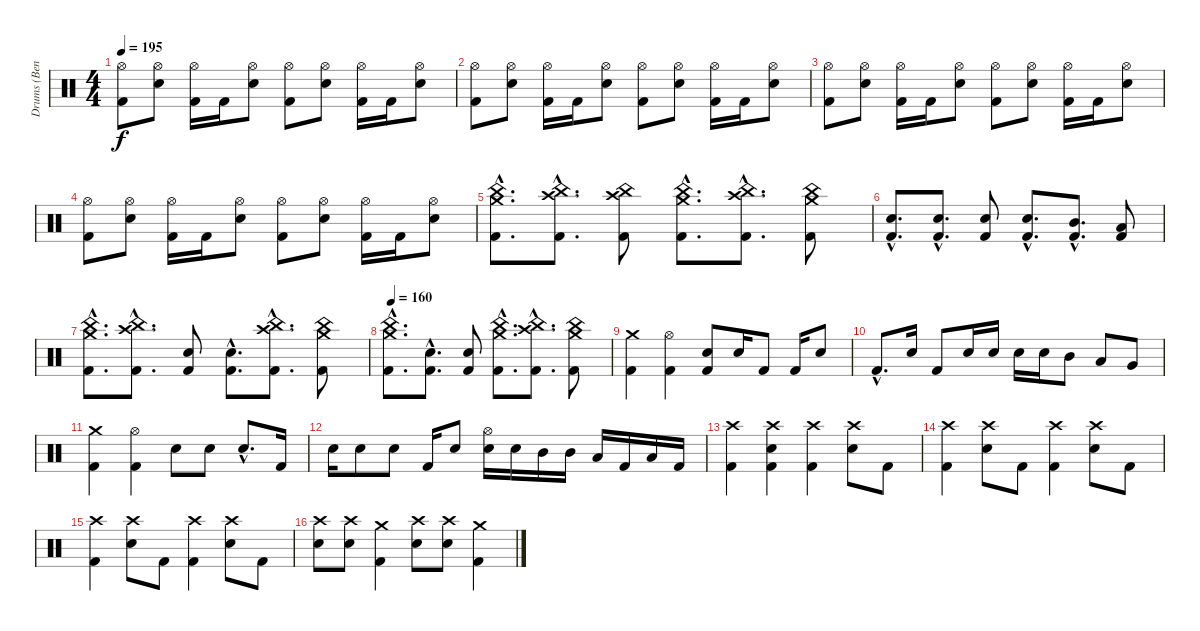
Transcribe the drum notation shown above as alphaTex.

\track ("Drums (Ben)" "Drums (Ben") {instrument percussion}
\staff {score}
\articulation defaults
\ts (4 4)
\tempo 195
\clef neutral
\ks c
("Hi-Hat (open)" "Kick (hit) 2").8{dy f} ("Hi-Hat (open)" "Snare (hit) 2").8 ("Hi-Hat (open)" "Kick (hit) 2").16 "Kick (hit) 2".16 ("Hi-Hat (open)" "Snare (hit) 2").8 ("Hi-Hat (open)" "Kick (hit) 2").8 ("Hi-Hat (open)" "Snare (hit) 2").8 ("Hi-Hat (open)" "Kick (hit) 2").16 "Kick (hit) 2".16 ("Hi-Hat (open)" "Snare (hit) 2").8 |
("Hi-Hat (open)" "Kick (hit) 2").8 ("Hi-Hat (open)" "Snare (hit) 2").8 ("Hi-Hat (open)" "Kick (hit) 2").16 "Kick (hit) 2".16 ("Hi-Hat (open)" "Snare (hit) 2").8 ("Hi-Hat (open)" "Kick (hit) 2").8 ("Hi-Hat (open)" "Snare (hit) 2").8 ("Hi-Hat (open)" "Kick (hit) 2").16 "Kick (hit) 2".16 ("Hi-Hat (open)" "Snare (hit) 2").8 |
("Hi-Hat (open)" "Kick (hit) 2").8 ("Hi-Hat (open)" "Snare (hit) 2").8 ("Hi-Hat (open)" "Kick (hit) 2").16 "Kick (hit) 2".16 ("Hi-Hat (open)" "Snare (hit) 2").8 ("Hi-Hat (open)" "Kick (hit) 2").8 ("Hi-Hat (open)" "Snare (hit) 2").8 ("Hi-Hat (open)" "Kick (hit) 2").16 "Kick (hit) 2".16 ("Hi-Hat (open)" "Snare (hit) 2").8 |
("Hi-Hat (open)" "Kick (hit) 2").8 ("Hi-Hat (open)" "Snare (hit) 2").8 ("Hi-Hat (open)" "Kick (hit) 2").16 "Kick (hit) 2".16 ("Hi-Hat (open)" "Snare (hit) 2").8 ("Hi-Hat (open)" "Kick (hit) 2").8 ("Hi-Hat (open)" "Snare (hit) 2").8 ("Hi-Hat (open)" "Kick (hit) 2").16 "Kick (hit) 2".16 ("Hi-Hat (open)" "Snare (hit) 2").8 |
("Crash medium (hit)"{hac} "China (hit)"{hac} "Kick (hit) 2"{hac}).8{d} ("Crash high (hit)"{hac} "China (hit)"{hac} "Kick (hit) 2"{hac}).8{d} ("Crash high (hit)" "China (hit)" "Kick (hit) 2").8 ("Crash medium (hit)"{hac} "China (hit)"{hac} "Kick (hit) 2"{hac}).8{d} ("Crash high (hit)"{hac} "China (hit)"{hac} "Kick (hit) 2"{hac}).8{d} ("Crash medium (hit)" "China (hit)" "Kick (hit) 2").8 |
("Snare (hit) 2"{hac} "Kick (hit) 2"{hac}).8{d} ("Snare (hit) 2"{hac} "Kick (hit) 2"{hac}).8{d} ("Snare (hit) 2" "Kick (hit) 2").8 ("Snare (hit) 2"{hac} "Kick (hit) 2"{hac}).8{d} ("Mid Tom (hit)"{hac} "Kick (hit) 2"{hac}).8{d} ("Low Tom (hit)" "Kick (hit) 2").8 |
("Crash medium (hit)"{hac} "China (hit)"{hac} "Kick (hit) 2"{hac}).8{d} ("Crash high (hit)"{hac} "China (hit)"{hac} "Kick (hit) 2"{hac}).8{d} ("Snare (hit) 2" "Kick (hit) 2").8 ("Snare (hit) 2"{hac} "Kick (hit) 2"{hac}).8{d} ("Crash high (hit)"{hac} "China (hit)"{hac} "Kick (hit) 2"{hac}).8{d} ("Crash medium (hit)" "China (hit)" "Kick (hit) 2").8 |
\tempo 160
("Crash medium (hit)"{hac} "China (hit)"{hac} "Kick (hit) 2"{hac}).8{d} ("Snare (hit) 2"{hac} "Kick (hit) 2"{hac}).8{d} ("Snare (hit) 2" "Kick (hit) 2").8 ("Crash medium (hit)"{hac} "China (hit)"{hac} "Kick (hit) 2"{hac}).8{d} ("Crash high (hit)"{hac} "China (hit)"{hac} "Kick (hit) 2"{hac}).8{d} ("Crash medium (hit)" "China (hit)" "Kick (hit) 2").8 |
("Crash medium (hit)" "Kick (hit) 2").4 ("Hi-Hat (open)" "Kick (hit) 2").4 ("Snare (hit) 2" "Kick (hit) 2").8 "Snare (hit) 2".16 "Kick (hit) 2".8 "Kick (hit) 2".16 "Snare (hit) 2".8 |
"Kick (hit) 2"{hac}.8{d} "Snare (hit) 2".16 "Kick (hit) 2".8 "Snare (hit) 2".16 "Snare (hit) 2".16 "Snare (hit) 2".16 "Snare (hit) 2".16 "Mid Tom (hit)".8 "Low Tom (hit)".8 "Very Low Tom (hit)".8 |
("Crash medium (hit)" "Kick (hit) 2").4 ("Hi-Hat (open)" "Kick (hit) 2").4 "Snare (hit) 2".8 "Snare (hit) 2".8 "Snare (hit) 2"{hac}.8{d} "Kick (hit) 2".16 |
"Snare (hit) 2".16 "Snare (hit) 2".8 "Snare (hit) 2".8 "Kick (hit) 2".16 "Snare (hit) 2".8 ("Hi-Hat (open)" "Snare (hit) 2").16 "Snare (hit) 2".16 "Mid Tom (hit)".16 "Mid Tom (hit)".16 "Low Tom (hit)".16 "Kick (hit) 2".16 "Low Tom (hit)".16 "Kick (hit) 2".16 |
("Crash high (hit)" "Kick (hit) 2").4 ("Crash high (hit)" "Snare (hit) 2" "Kick (hit) 2").4 ("Crash high (hit)" "Kick (hit) 2").4 ("Crash high (hit)" "Snare (hit) 2").8 "Kick (hit) 2".8 |
("Crash high (hit)" "Kick (hit) 2").4 ("Crash high (hit)" "Snare (hit) 2").8 "Kick (hit) 2".8 ("Crash high (hit)" "Kick (hit) 2").4 ("Crash high (hit)" "Snare (hit) 2").8 "Kick (hit) 2".8 |
("Crash high (hit)" "Kick (hit) 2").4 ("Crash high (hit)" "Snare (hit) 2").8 "Kick (hit) 2".8 ("Crash high (hit)" "Kick (hit) 2").4 ("Crash high (hit)" "Snare (hit) 2").8 "Kick (hit) 2".8 |
("Crash high (hit)" "Snare (hit) 2").8 ("Crash high (hit)" "Snare (hit) 2").8 ("Crash medium (hit)" "Kick (hit) 2").4 ("Crash high (hit)" "Snare (hit) 2").8 ("Crash high (hit)" "Snare (hit) 2").8 ("Crash medium (hit)" "Kick (hit) 2").4
